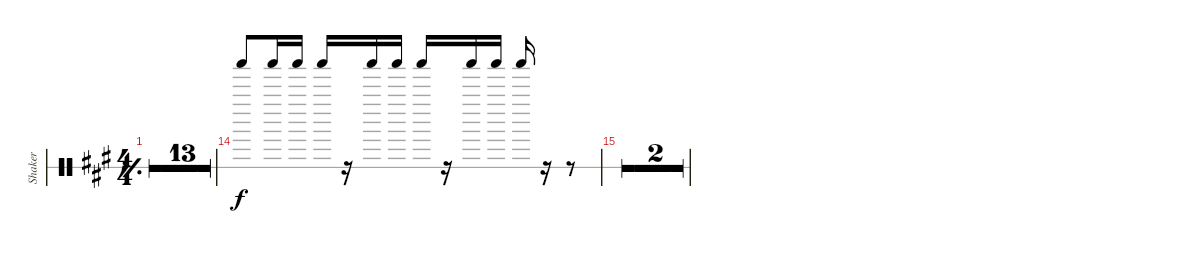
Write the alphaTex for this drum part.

\defaultSystemsLayout 4
\bracketExtendMode groupsimilarinstruments
\otherSystemsTrackNameOrientation horizontal
\track ("Shaker" "Shaker") {multiBarRest instrument percussion}
\staff {score 1}
\articulation defaults
\ts (4 4)
\tempo 128
\clef neutral
\simile simple
\ks a
|
|
|
|
|
|
|
|
|
|
|
|
|
\simile none "Shaker (hit)"{acc forcenatural}.8{beam Up} "Shaker (hit)"{acc forcenatural}.16{beam Up} "Shaker (hit)"{acc forcenatural}.16{beam Up} "Shaker (hit)"{acc forcenatural}.16{beam Up}
r.16{beam Up} "Shaker (hit)"{acc forcenatural}.16{beam Up} "Shaker (hit)"{acc forcenatural}.16{beam Up} "Shaker (hit)"{acc forcenatural}.16{beam Up} r.16{beam Up} "Shaker (hit)"{acc forcenatural}.16{beam Up} "Shaker (hit)"{acc forcenatural}.16{beam Up} "Shaker (hit)"{acc forcenatural}.16{beam Up} r.16{beam Up} r.8{beam Up} |
r.1{beam Down} |
r.1{beam Down}
